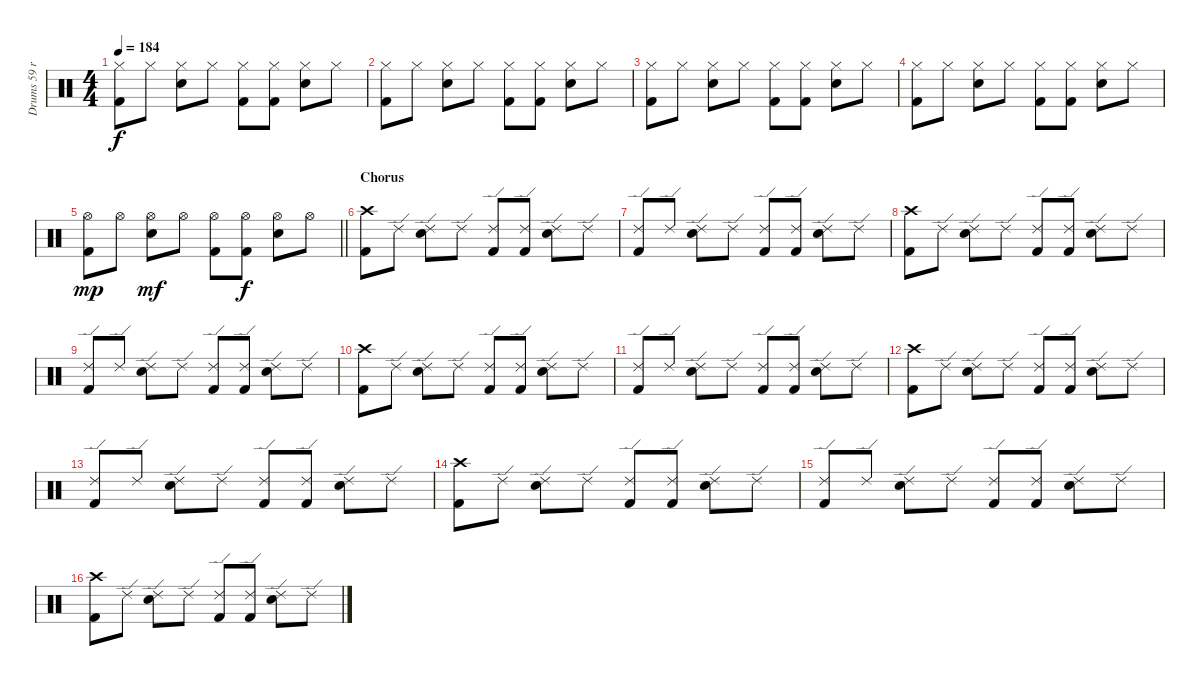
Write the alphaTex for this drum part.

\track ("Drums 59 ride" "Drums 59 r") {mute instrument percussion}
\staff {score}
\articulation defaults
\ts (4 4)
\tempo 184
\clef neutral
\ks c
("Hi-Hat (closed)" "Kick (hit) 2").8{dy f} "Hi-Hat (closed)".8 ("Hi-Hat (closed)" "Snare (hit) 2").8 "Hi-Hat (closed)".8 ("Hi-Hat (closed)" "Kick (hit) 2").8 ("Hi-Hat (closed)" "Kick (hit) 2").8 ("Hi-Hat (closed)" "Snare (hit) 2").8 "Hi-Hat (closed)".8 |
("Hi-Hat (closed)" "Kick (hit) 2").8 "Hi-Hat (closed)".8 ("Hi-Hat (closed)" "Snare (hit) 2").8 "Hi-Hat (closed)".8 ("Hi-Hat (closed)" "Kick (hit) 2").8 ("Hi-Hat (closed)" "Kick (hit) 2").8 ("Hi-Hat (closed)" "Snare (hit) 2").8 "Hi-Hat (closed)".8 |
("Hi-Hat (closed)" "Kick (hit) 2").8 "Hi-Hat (closed)".8 ("Hi-Hat (closed)" "Snare (hit) 2").8 "Hi-Hat (closed)".8 ("Hi-Hat (closed)" "Kick (hit) 2").8 ("Hi-Hat (closed)" "Kick (hit) 2").8 ("Hi-Hat (closed)" "Snare (hit) 2").8 "Hi-Hat (closed)".8 |
("Hi-Hat (closed)" "Kick (hit) 2").8 "Hi-Hat (closed)".8 ("Hi-Hat (closed)" "Snare (hit) 2").8 "Hi-Hat (closed)".8 ("Hi-Hat (closed)" "Kick (hit) 2").8 ("Hi-Hat (closed)" "Kick (hit) 2").8 ("Hi-Hat (closed)" "Snare (hit) 2").8 "Hi-Hat (closed)".8 |
\barLineRight lightlight
("Hi-Hat (open)" "Kick (hit) 2").8{dy mp} "Hi-Hat (open)".8 ("Hi-Hat (open)" "Snare (hit) 2").8{dy mf} "Hi-Hat (open)".8 ("Hi-Hat (open)" "Kick (hit) 2").8 ("Hi-Hat (open)" "Kick (hit) 2").8{dy f} ("Hi-Hat (open)" "Snare (hit) 2").8 "Hi-Hat (open)".8 |
\section ("" "Chorus")
("Crash high (hit)" "Kick (hit) 2").8 "Ride (edge) 2".8 ("Ride (edge) 2" "Snare (hit) 2").8 "Ride (edge) 2".8 ("Ride (edge) 2" "Kick (hit) 2").8 ("Ride (edge) 2" "Kick (hit) 2").8 ("Ride (edge) 2" "Snare (hit) 2").8 "Ride (edge) 2".8 |
("Ride (edge) 2" "Kick (hit) 2").8 "Ride (edge) 2".8 ("Ride (edge) 2" "Snare (hit) 2").8 "Ride (edge) 2".8 ("Ride (edge) 2" "Kick (hit) 2").8 ("Ride (edge) 2" "Kick (hit) 2").8 ("Ride (edge) 2" "Snare (hit) 2").8 "Ride (edge) 2".8 |
("Crash high (hit)" "Kick (hit) 2").8 "Ride (edge) 2".8 ("Ride (edge) 2" "Snare (hit) 2").8 "Ride (edge) 2".8 ("Ride (edge) 2" "Kick (hit) 2").8 ("Ride (edge) 2" "Kick (hit) 2").8 ("Ride (edge) 2" "Snare (hit) 2").8 "Ride (edge) 2".8 |
("Ride (edge) 2" "Kick (hit) 2").8 "Ride (edge) 2".8 ("Ride (edge) 2" "Snare (hit) 2").8 "Ride (edge) 2".8 ("Ride (edge) 2" "Kick (hit) 2").8 ("Ride (edge) 2" "Kick (hit) 2").8 ("Ride (edge) 2" "Snare (hit) 2").8 "Ride (edge) 2".8 |
("Crash high (hit)" "Kick (hit) 2").8 "Ride (edge) 2".8 ("Ride (edge) 2" "Snare (hit) 2").8 "Ride (edge) 2".8 ("Ride (edge) 2" "Kick (hit) 2").8 ("Ride (edge) 2" "Kick (hit) 2").8 ("Ride (edge) 2" "Snare (hit) 2").8 "Ride (edge) 2".8 |
("Ride (edge) 2" "Kick (hit) 2").8 "Ride (edge) 2".8 ("Ride (edge) 2" "Snare (hit) 2").8 "Ride (edge) 2".8 ("Ride (edge) 2" "Kick (hit) 2").8 ("Ride (edge) 2" "Kick (hit) 2").8 ("Ride (edge) 2" "Snare (hit) 2").8 "Ride (edge) 2".8 |
("Crash high (hit)" "Kick (hit) 2").8 "Ride (edge) 2".8 ("Ride (edge) 2" "Snare (hit) 2").8 "Ride (edge) 2".8 ("Ride (edge) 2" "Kick (hit) 2").8 ("Ride (edge) 2" "Kick (hit) 2").8 ("Ride (edge) 2" "Snare (hit) 2").8 "Ride (edge) 2".8 |
("Ride (edge) 2" "Kick (hit) 2").8 "Ride (edge) 2".8 ("Ride (edge) 2" "Snare (hit) 2").8 "Ride (edge) 2".8 ("Ride (edge) 2" "Kick (hit) 2").8 ("Ride (edge) 2" "Kick (hit) 2").8 ("Ride (edge) 2" "Snare (hit) 2").8 "Ride (edge) 2".8 |
("Crash high (hit)" "Kick (hit) 2").8 "Ride (edge) 2".8 ("Ride (edge) 2" "Snare (hit) 2").8 "Ride (edge) 2".8 ("Ride (edge) 2" "Kick (hit) 2").8 ("Ride (edge) 2" "Kick (hit) 2").8 ("Ride (edge) 2" "Snare (hit) 2").8 "Ride (edge) 2".8 |
("Ride (edge) 2" "Kick (hit) 2").8 "Ride (edge) 2".8 ("Ride (edge) 2" "Snare (hit) 2").8 "Ride (edge) 2".8 ("Ride (edge) 2" "Kick (hit) 2").8 ("Ride (edge) 2" "Kick (hit) 2").8 ("Ride (edge) 2" "Snare (hit) 2").8 "Ride (edge) 2".8 |
("Crash high (hit)" "Kick (hit) 2").8 "Ride (edge) 2".8 ("Ride (edge) 2" "Snare (hit) 2").8 "Ride (edge) 2".8 ("Ride (edge) 2" "Kick (hit) 2").8 ("Ride (edge) 2" "Kick (hit) 2").8 ("Ride (edge) 2" "Snare (hit) 2").8 "Ride (edge) 2".8
